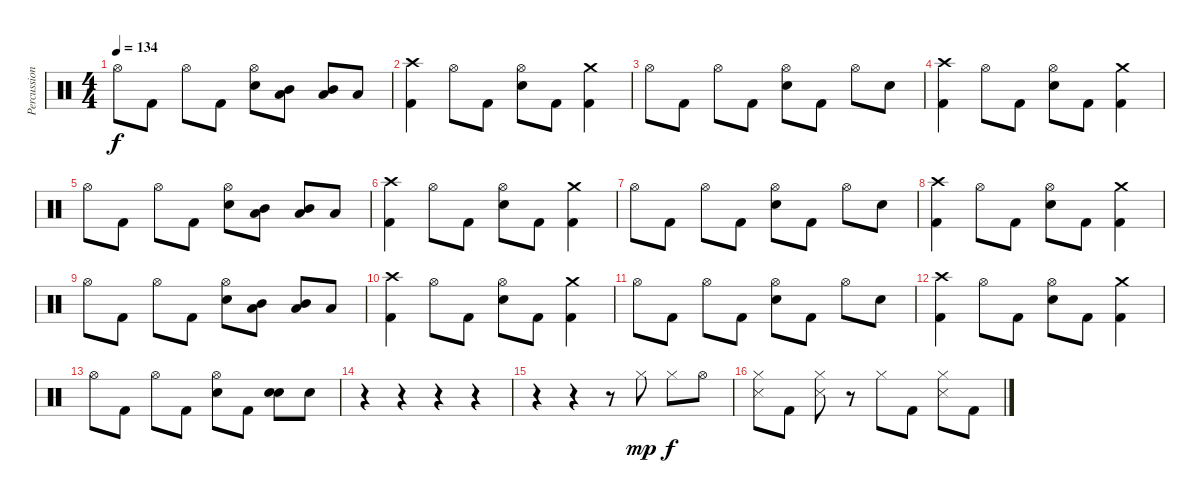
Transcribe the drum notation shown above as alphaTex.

\track ("Percussion" "Percussion") {instrument percussion}
\staff {score}
\articulation defaults
\ts (4 4)
\tempo 134
\clef neutral
\ks c "Hi-Hat (open)".8{dy f} "Kick (hit) 2".8 "Hi-Hat (open)".8 "Kick (hit) 2".8
("Hi-Hat (open)" "Snare (hit) 2").8 ("Low Tom (hit)" "Mid Tom (hit)").8{bd 240} ("Low Tom (hit)" "Mid Tom (hit)").8{bd 240} "Low Floor Tom (hit)".8 |
("Crash high (hit)" "Kick (hit) 2").4 "Hi-Hat (open)".8 "Kick (hit) 2".8 ("Hi-Hat (open)" "Snare (hit) 2").8 "Kick (hit) 2".8 ("Crash medium (hit)" "Kick (hit) 2").4 |
"Hi-Hat (open)".8 "Kick (hit) 2".8 "Hi-Hat (open)".8 "Kick (hit) 2".8 ("Hi-Hat (open)" "Snare (hit) 2").8 "Kick (hit) 2".8 "Hi-Hat (open)".8 "Snare (hit) 2".8 |
("Crash high (hit)" "Kick (hit) 2").4 "Hi-Hat (open)".8 "Kick (hit) 2".8 ("Hi-Hat (open)" "Snare (hit) 2").8 "Kick (hit) 2".8 ("Crash medium (hit)" "Kick (hit) 2").4 |
"Hi-Hat (open)".8 "Kick (hit) 2".8 "Hi-Hat (open)".8 "Kick (hit) 2".8 ("Hi-Hat (open)" "Snare (hit) 2").8 ("Low Tom (hit)" "Mid Tom (hit)").8{bd 240} ("Low Tom (hit)" "Mid Tom (hit)").8{bd 240} "Low Floor Tom (hit)".8 |
("Crash high (hit)" "Kick (hit) 2").4 "Hi-Hat (open)".8 "Kick (hit) 2".8 ("Hi-Hat (open)" "Snare (hit) 2").8 "Kick (hit) 2".8 ("Crash medium (hit)" "Kick (hit) 2").4 |
"Hi-Hat (open)".8 "Kick (hit) 2".8 "Hi-Hat (open)".8 "Kick (hit) 2".8 ("Hi-Hat (open)" "Snare (hit) 2").8 "Kick (hit) 2".8 "Hi-Hat (open)".8 "Snare (hit) 2".8 |
("Crash high (hit)" "Kick (hit) 2").4 "Hi-Hat (open)".8 "Kick (hit) 2".8 ("Hi-Hat (open)" "Snare (hit) 2").8 "Kick (hit) 2".8 ("Crash medium (hit)" "Kick (hit) 2").4 |
"Hi-Hat (open)".8 "Kick (hit) 2".8 "Hi-Hat (open)".8 "Kick (hit) 2".8 ("Hi-Hat (open)" "Snare (hit) 2").8 ("Low Tom (hit)" "Mid Tom (hit)").8{bd 240} ("Low Tom (hit)" "Mid Tom (hit)").8{bd 240} "Low Floor Tom (hit)".8 |
("Crash high (hit)" "Kick (hit) 2").4 "Hi-Hat (open)".8 "Kick (hit) 2".8 ("Hi-Hat (open)" "Snare (hit) 2").8 "Kick (hit) 2".8 ("Crash medium (hit)" "Kick (hit) 2").4 |
"Hi-Hat (open)".8 "Kick (hit) 2".8 "Hi-Hat (open)".8 "Kick (hit) 2".8 ("Hi-Hat (open)" "Snare (hit) 2").8 "Kick (hit) 2".8 "Hi-Hat (open)".8 "Snare (hit) 2".8 |
("Crash high (hit)" "Kick (hit) 2").4 "Hi-Hat (open)".8 "Kick (hit) 2".8 ("Hi-Hat (open)" "Snare (hit) 2").8 "Kick (hit) 2".8 ("Crash medium (hit)" "Kick (hit) 2").4 |
"Hi-Hat (open)".8 "Kick (hit) 2".8 "Hi-Hat (open)".8 "Kick (hit) 2".8 ("Hi-Hat (open)" "Snare (hit) 2").8 "Kick (hit) 2".8 ("Snare (hit) 2" "Snare (hit) 2").8{bd 240} "Snare (hit) 2".8 |
r.4 r.4 r.4 r.4 |
r.4 r.4 r.8 "Hi-Hat (closed)".8{dy mp} "Hi-Hat (closed)".8{dy f} "Hi-Hat (open)".8 |
("Hi-Hat (closed)" "Snare (side stick) 3").8 "Kick (hit) 2".8 ("Hi-Hat (closed)" "Snare (side stick) 3").8 r.8 "Hi-Hat (closed)".8 "Kick (hit) 2".8 ("Hi-Hat (closed)" "Snare (side stick) 3").8 "Kick (hit) 2".8
